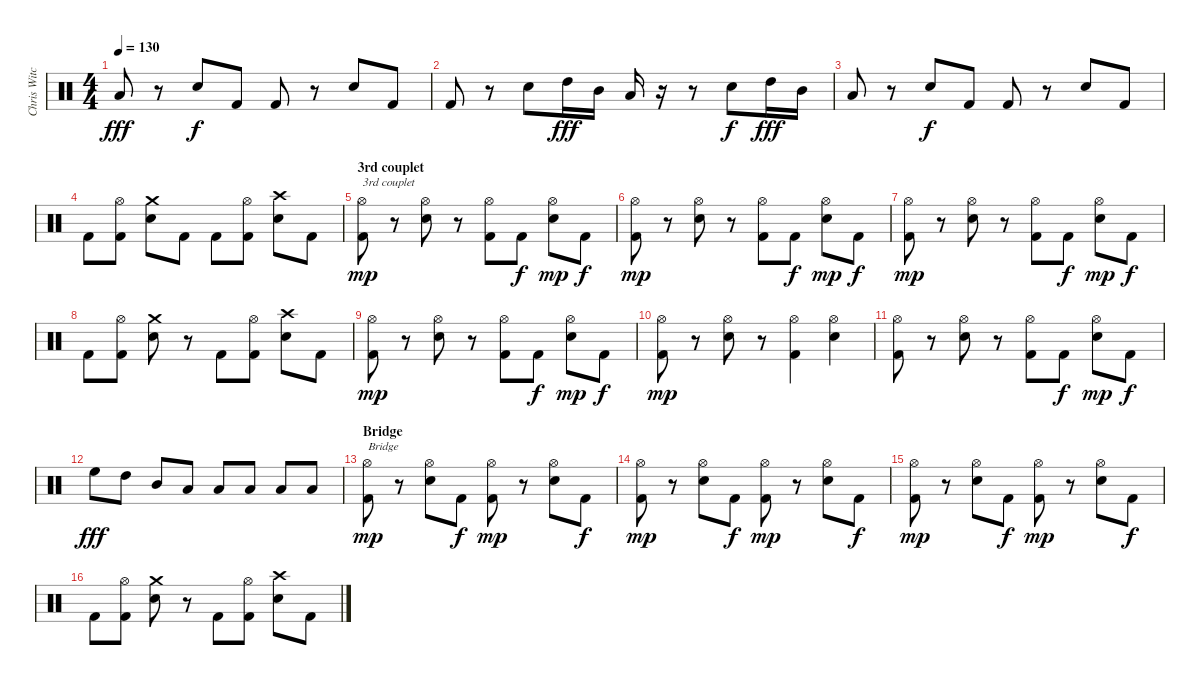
\track ("Chris Witchhunter" "Chris Witc") {instrument percussion}
\staff {score}
\articulation defaults
\ts (4 4)
\tempo 130
\clef neutral
\ks c "Low Tom (hit)".8{dy fff}
r.8 "Electric Snare (hit)".8{dy f} "Kick (hit) 2".8 "Kick (hit) 2".8 r.8 "Electric Snare (hit)".8 "Kick (hit) 2".8 |
"Kick (hit) 2".8 r.8 "Electric Snare (hit)".8 "High Tom (hit)".16{dy fff} "Mid Tom (hit)".16 "Low Tom (hit)".16 r.16 r.8 "Electric Snare (hit)".8{dy f} "High Tom (hit)".16{dy fff} "Mid Tom (hit)".16 |
"Low Tom (hit)".8 r.8 "Electric Snare (hit)".8{dy f} "Kick (hit) 2".8 "Kick (hit) 2".8 r.8 "Electric Snare (hit)".8 "Kick (hit) 2".8 |
"Kick (hit) 2".8 ("Hi-Hat (open)" "Kick (hit) 2").8 ("Crash medium (hit)" "Electric Snare (hit)").8 "Kick (hit) 2".8 "Kick (hit) 2".8 ("Hi-Hat (open)" "Kick (hit) 2").8 ("Crash high (hit)" "Electric Snare (hit)").8 "Kick (hit) 2".8 |
\section ("" "3rd couplet")
("Hi-Hat (open)" "Kick (hit) 2").8{txt "3rd couplet" dy mp} r.8 ("Hi-Hat (open)" "Electric Snare (hit)").8 r.8 ("Hi-Hat (open)" "Kick (hit) 2").8 "Kick (hit) 2".8{dy f} ("Hi-Hat (open)" "Electric Snare (hit)").8{dy mp} "Kick (hit) 2".8{dy f} |
("Hi-Hat (open)" "Kick (hit) 2").8{dy mp} r.8 ("Hi-Hat (open)" "Electric Snare (hit)").8 r.8 ("Hi-Hat (open)" "Kick (hit) 2").8 "Kick (hit) 2".8{dy f} ("Hi-Hat (open)" "Electric Snare (hit)").8{dy mp} "Kick (hit) 2".8{dy f} |
("Hi-Hat (open)" "Kick (hit) 2").8{dy mp} r.8 ("Hi-Hat (open)" "Electric Snare (hit)").8 r.8 ("Hi-Hat (open)" "Kick (hit) 2").8 "Kick (hit) 2".8{dy f} ("Hi-Hat (open)" "Electric Snare (hit)").8{dy mp} "Kick (hit) 2".8{dy f} |
"Kick (hit) 2".8 ("Hi-Hat (open)" "Kick (hit) 2").8 ("Crash medium (hit)" "Electric Snare (hit)").8 r.8 "Kick (hit) 2".8 ("Hi-Hat (open)" "Kick (hit) 2").8 ("Crash high (hit)" "Electric Snare (hit)").8 "Kick (hit) 2".8 |
("Hi-Hat (open)" "Kick (hit) 2").8{dy mp} r.8 ("Hi-Hat (open)" "Electric Snare (hit)").8 r.8 ("Hi-Hat (open)" "Kick (hit) 2").8 "Kick (hit) 2".8{dy f} ("Hi-Hat (open)" "Electric Snare (hit)").8{dy mp} "Kick (hit) 2".8{dy f} |
("Hi-Hat (open)" "Kick (hit) 2").8{dy mp} r.8 ("Hi-Hat (open)" "Electric Snare (hit)").8 r.8 ("Hi-Hat (open)" "Kick (hit) 2").4 ("Hi-Hat (open)" "Electric Snare (hit)").4 |
("Hi-Hat (open)" "Kick (hit) 2").8 r.8 ("Hi-Hat (open)" "Electric Snare (hit)").8 r.8 ("Hi-Hat (open)" "Kick (hit) 2").8 "Kick (hit) 2".8{dy f} ("Hi-Hat (open)" "Electric Snare (hit)").8{dy mp} "Kick (hit) 2".8{dy f} |
"High Floor Tom (hit)".8{dy fff} "High Tom (hit)".8 "Mid Tom (hit)".8 "Low Tom (hit)".8 "Low Tom (hit)".8 "Low Tom (hit)".8 "Low Floor Tom (hit)".8 "Low Floor Tom (hit)".8 |
\section ("" "Bridge")
("Hi-Hat (open)" "Kick (hit) 2").8{txt "Bridge" dy mp} r.8 ("Hi-Hat (open)" "Electric Snare (hit)").8 "Kick (hit) 2".8{dy f} ("Hi-Hat (open)" "Kick (hit) 2").8{dy mp} r.8 ("Hi-Hat (open)" "Electric Snare (hit)").8 "Kick (hit) 2".8{dy f} |
("Hi-Hat (open)" "Kick (hit) 2").8{dy mp} r.8 ("Hi-Hat (open)" "Electric Snare (hit)").8 "Kick (hit) 2".8{dy f} ("Hi-Hat (open)" "Kick (hit) 2").8{dy mp} r.8 ("Hi-Hat (open)" "Electric Snare (hit)").8 "Kick (hit) 2".8{dy f} |
("Hi-Hat (open)" "Kick (hit) 2").8{dy mp} r.8 ("Hi-Hat (open)" "Electric Snare (hit)").8 "Kick (hit) 2".8{dy f} ("Hi-Hat (open)" "Kick (hit) 2").8{dy mp} r.8 ("Hi-Hat (open)" "Electric Snare (hit)").8 "Kick (hit) 2".8{dy f} |
"Kick (hit) 2".8 ("Hi-Hat (open)" "Kick (hit) 2").8 ("Crash medium (hit)" "Electric Snare (hit)").8 r.8 "Kick (hit) 2".8 ("Hi-Hat (open)" "Kick (hit) 2").8 ("Crash high (hit)" "Electric Snare (hit)").8 "Kick (hit) 2".8
